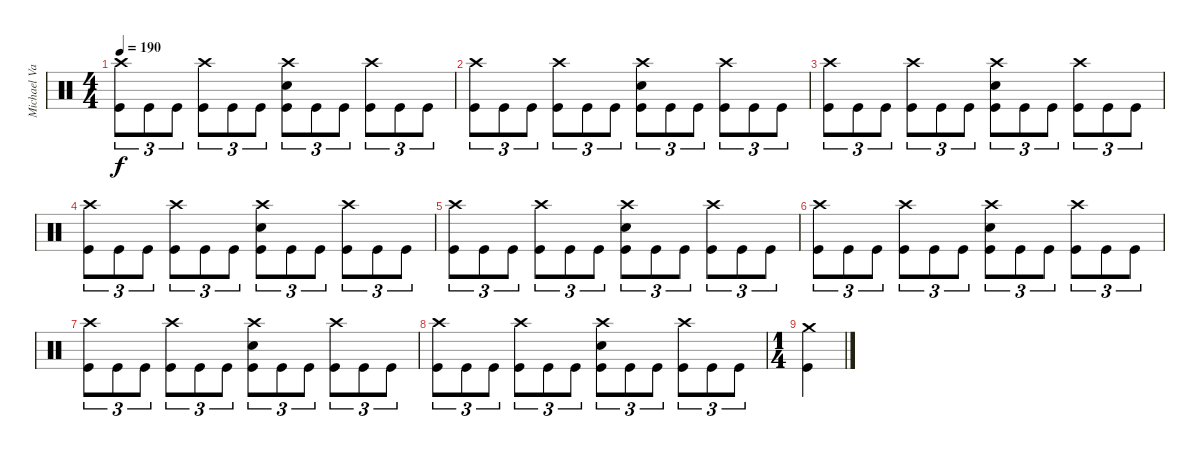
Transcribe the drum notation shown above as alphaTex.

\track ("Michael VanDyne" "Michael Va") {instrument percussion}
\staff {score}
\articulation defaults
\ts (4 4)
\tempo 190
\clef neutral
\ks c
("Crash high (hit)" "Kick (hit)").8{tu (3 2) dy f} "Kick (hit)".8{tu (3 2)} "Kick (hit)".8{tu (3 2)} ("Crash high (hit)" "Kick (hit)").8{tu (3 2)} "Kick (hit)".8{tu (3 2)} "Kick (hit)".8{tu (3 2)} ("Crash high (hit)" "Electric Snare (hit)" "Kick (hit)").8{tu (3 2)} "Kick (hit)".8{tu (3 2)} "Kick (hit)".8{tu (3 2)} ("Crash high (hit)" "Kick (hit)").8{tu (3 2)} "Kick (hit)".8{tu (3 2)} "Kick (hit)".8{tu (3 2)} |
("Crash high (hit)" "Kick (hit)").8{tu (3 2)} "Kick (hit)".8{tu (3 2)} "Kick (hit)".8{tu (3 2)} ("Crash high (hit)" "Kick (hit)").8{tu (3 2)} "Kick (hit)".8{tu (3 2)} "Kick (hit)".8{tu (3 2)} ("Crash high (hit)" "Electric Snare (hit)" "Kick (hit)").8{tu (3 2)} "Kick (hit)".8{tu (3 2)} "Kick (hit)".8{tu (3 2)} ("Crash high (hit)" "Kick (hit)").8{tu (3 2)} "Kick (hit)".8{tu (3 2)} "Kick (hit)".8{tu (3 2)} |
("Crash high (hit)" "Kick (hit)").8{tu (3 2)} "Kick (hit)".8{tu (3 2)} "Kick (hit)".8{tu (3 2)} ("Crash high (hit)" "Kick (hit)").8{tu (3 2)} "Kick (hit)".8{tu (3 2)} "Kick (hit)".8{tu (3 2)} ("Crash high (hit)" "Electric Snare (hit)" "Kick (hit)").8{tu (3 2)} "Kick (hit)".8{tu (3 2)} "Kick (hit)".8{tu (3 2)} ("Crash high (hit)" "Kick (hit)").8{tu (3 2)} "Kick (hit)".8{tu (3 2)} "Kick (hit)".8{tu (3 2)} |
("Crash high (hit)" "Kick (hit)").8{tu (3 2)} "Kick (hit)".8{tu (3 2)} "Kick (hit)".8{tu (3 2)} ("Crash high (hit)" "Kick (hit)").8{tu (3 2)} "Kick (hit)".8{tu (3 2)} "Kick (hit)".8{tu (3 2)} ("Crash high (hit)" "Electric Snare (hit)" "Kick (hit)").8{tu (3 2)} "Kick (hit)".8{tu (3 2)} "Kick (hit)".8{tu (3 2)} ("Crash high (hit)" "Kick (hit)").8{tu (3 2)} "Kick (hit)".8{tu (3 2)} "Kick (hit)".8{tu (3 2)} |
("Crash high (hit)" "Kick (hit)").8{tu (3 2)} "Kick (hit)".8{tu (3 2)} "Kick (hit)".8{tu (3 2)} ("Crash high (hit)" "Kick (hit)").8{tu (3 2)} "Kick (hit)".8{tu (3 2)} "Kick (hit)".8{tu (3 2)} ("Crash high (hit)" "Electric Snare (hit)" "Kick (hit)").8{tu (3 2)} "Kick (hit)".8{tu (3 2)} "Kick (hit)".8{tu (3 2)} ("Crash high (hit)" "Kick (hit)").8{tu (3 2)} "Kick (hit)".8{tu (3 2)} "Kick (hit)".8{tu (3 2)} |
("Crash high (hit)" "Kick (hit)").8{tu (3 2)} "Kick (hit)".8{tu (3 2)} "Kick (hit)".8{tu (3 2)} ("Crash high (hit)" "Kick (hit)").8{tu (3 2)} "Kick (hit)".8{tu (3 2)} "Kick (hit)".8{tu (3 2)} ("Crash high (hit)" "Electric Snare (hit)" "Kick (hit)").8{tu (3 2)} "Kick (hit)".8{tu (3 2)} "Kick (hit)".8{tu (3 2)} ("Crash high (hit)" "Kick (hit)").8{tu (3 2)} "Kick (hit)".8{tu (3 2)} "Kick (hit)".8{tu (3 2)} |
("Crash high (hit)" "Kick (hit)").8{tu (3 2)} "Kick (hit)".8{tu (3 2)} "Kick (hit)".8{tu (3 2)} ("Crash high (hit)" "Kick (hit)").8{tu (3 2)} "Kick (hit)".8{tu (3 2)} "Kick (hit)".8{tu (3 2)} ("Crash high (hit)" "Electric Snare (hit)" "Kick (hit)").8{tu (3 2)} "Kick (hit)".8{tu (3 2)} "Kick (hit)".8{tu (3 2)} ("Crash high (hit)" "Kick (hit)").8{tu (3 2)} "Kick (hit)".8{tu (3 2)} "Kick (hit)".8{tu (3 2)} |
("Crash high (hit)" "Kick (hit)").8{tu (3 2)} "Kick (hit)".8{tu (3 2)} "Kick (hit)".8{tu (3 2)} ("Crash high (hit)" "Kick (hit)").8{tu (3 2)} "Kick (hit)".8{tu (3 2)} "Kick (hit)".8{tu (3 2)} ("Crash high (hit)" "Electric Snare (hit)" "Kick (hit)").8{tu (3 2)} "Kick (hit)".8{tu (3 2)} "Kick (hit)".8{tu (3 2)} ("Crash high (hit)" "Kick (hit)").8{tu (3 2)} "Kick (hit)".8{tu (3 2)} "Kick (hit)".8{tu (3 2)} |
\ts (1 4)
("Crash medium (hit)" "Kick (hit)").4
